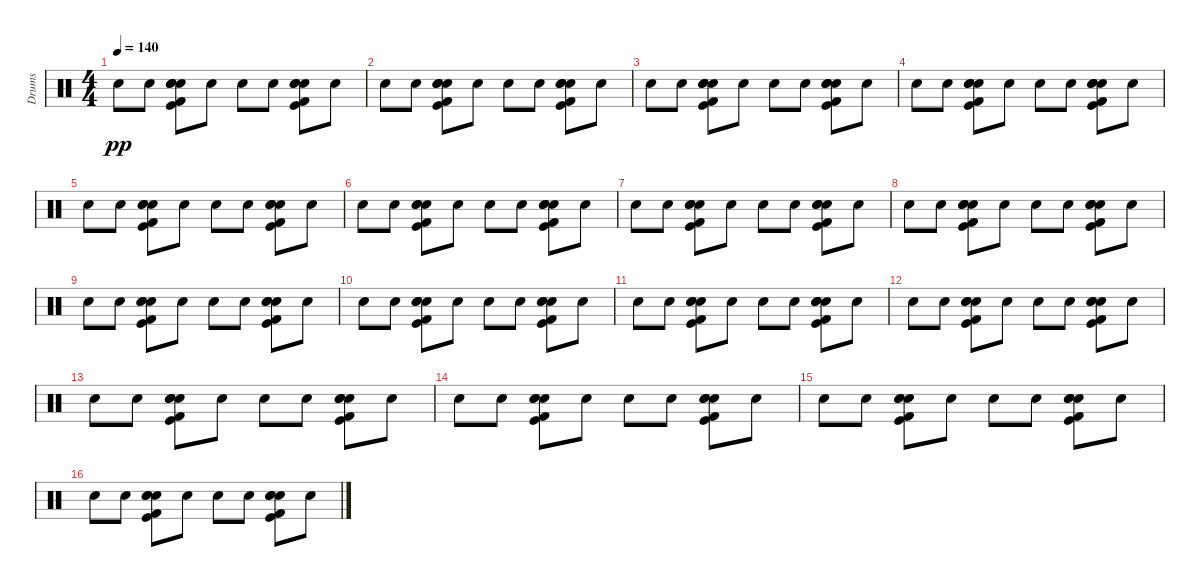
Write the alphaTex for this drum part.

\track ("Drums" "Drums") {instrument percussion}
\staff {score}
\articulation defaults
\ts (4 4)
\tempo 140
\clef neutral
\ks c "Electric Snare (hit)".8{dy pp} "Electric Snare (hit)".8
("Kick (hit) 2" "Kick (hit)" "Snare (hit) 2" "Electric Snare (hit)" "Electric Snare (hit)").8 "Electric Snare (hit)".8 "Electric Snare (hit)".8 "Electric Snare (hit)".8 ("Snare (hit) 2" "Kick (hit) 2" "Electric Snare (hit)" "Electric Snare (hit)" "Kick (hit)").8 "Electric Snare (hit)".8 |
"Electric Snare (hit)".8 "Electric Snare (hit)".8 ("Kick (hit)" "Kick (hit) 2" "Electric Snare (hit)" "Snare (hit) 2" "Electric Snare (hit)").8 "Electric Snare (hit)".8 "Electric Snare (hit)".8 "Electric Snare (hit)".8 ("Snare (hit) 2" "Kick (hit) 2" "Electric Snare (hit)" "Electric Snare (hit)" "Kick (hit)").8 "Electric Snare (hit)".8 |
"Electric Snare (hit)".8 "Electric Snare (hit)".8 ("Kick (hit)" "Electric Snare (hit)" "Kick (hit) 2" "Electric Snare (hit)" "Snare (hit) 2").8 "Electric Snare (hit)".8 "Electric Snare (hit)".8 "Electric Snare (hit)".8 ("Snare (hit) 2" "Kick (hit) 2" "Electric Snare (hit)" "Electric Snare (hit)" "Kick (hit)").8 "Electric Snare (hit)".8 |
"Electric Snare (hit)".8 "Electric Snare (hit)".8 ("Kick (hit) 2" "Snare (hit) 2" "Electric Snare (hit)" "Kick (hit)" "Electric Snare (hit)").8 "Electric Snare (hit)".8 "Electric Snare (hit)".8 "Electric Snare (hit)".8 ("Snare (hit) 2" "Kick (hit) 2" "Electric Snare (hit)" "Electric Snare (hit)" "Kick (hit)").8 "Electric Snare (hit)".8 |
"Electric Snare (hit)".8 "Electric Snare (hit)".8 ("Kick (hit) 2" "Kick (hit)" "Snare (hit) 2" "Electric Snare (hit)" "Electric Snare (hit)").8 "Electric Snare (hit)".8 "Electric Snare (hit)".8 "Electric Snare (hit)".8 ("Snare (hit) 2" "Kick (hit) 2" "Kick (hit)" "Electric Snare (hit)" "Electric Snare (hit)").8 "Electric Snare (hit)".8 |
"Electric Snare (hit)".8 "Electric Snare (hit)".8 ("Kick (hit) 2" "Kick (hit)" "Snare (hit) 2" "Electric Snare (hit)" "Electric Snare (hit)").8 "Electric Snare (hit)".8 "Electric Snare (hit)".8 "Electric Snare (hit)".8 ("Snare (hit) 2" "Kick (hit) 2" "Electric Snare (hit)" "Electric Snare (hit)" "Kick (hit)").8 "Electric Snare (hit)".8 |
"Electric Snare (hit)".8 "Electric Snare (hit)".8 ("Kick (hit)" "Kick (hit) 2" "Electric Snare (hit)" "Snare (hit) 2" "Electric Snare (hit)").8 "Electric Snare (hit)".8 "Electric Snare (hit)".8 "Electric Snare (hit)".8 ("Snare (hit) 2" "Kick (hit) 2" "Electric Snare (hit)" "Electric Snare (hit)" "Kick (hit)").8 "Electric Snare (hit)".8 |
"Electric Snare (hit)".8 "Electric Snare (hit)".8 ("Kick (hit)" "Electric Snare (hit)" "Kick (hit) 2" "Electric Snare (hit)" "Snare (hit) 2").8 "Electric Snare (hit)".8 "Electric Snare (hit)".8 "Electric Snare (hit)".8 ("Snare (hit) 2" "Kick (hit) 2" "Electric Snare (hit)" "Electric Snare (hit)" "Kick (hit)").8 "Electric Snare (hit)".8 |
"Electric Snare (hit)".8 "Electric Snare (hit)".8 ("Kick (hit) 2" "Snare (hit) 2" "Electric Snare (hit)" "Kick (hit)" "Electric Snare (hit)").8 "Electric Snare (hit)".8 "Electric Snare (hit)".8 "Electric Snare (hit)".8 ("Snare (hit) 2" "Kick (hit) 2" "Electric Snare (hit)" "Electric Snare (hit)" "Kick (hit)").8 "Electric Snare (hit)".8 |
"Electric Snare (hit)".8 "Electric Snare (hit)".8 ("Kick (hit) 2" "Kick (hit)" "Snare (hit) 2" "Electric Snare (hit)" "Electric Snare (hit)").8 "Electric Snare (hit)".8 "Electric Snare (hit)".8 "Electric Snare (hit)".8 ("Snare (hit) 2" "Kick (hit) 2" "Kick (hit)" "Electric Snare (hit)" "Electric Snare (hit)").8 "Electric Snare (hit)".8 |
"Electric Snare (hit)".8 "Electric Snare (hit)".8 ("Kick (hit) 2" "Kick (hit)" "Snare (hit) 2" "Electric Snare (hit)" "Electric Snare (hit)").8 "Electric Snare (hit)".8 "Electric Snare (hit)".8 "Electric Snare (hit)".8 ("Snare (hit) 2" "Kick (hit) 2" "Electric Snare (hit)" "Electric Snare (hit)" "Kick (hit)").8 "Electric Snare (hit)".8 |
"Electric Snare (hit)".8 "Electric Snare (hit)".8 ("Kick (hit)" "Kick (hit) 2" "Electric Snare (hit)" "Snare (hit) 2" "Electric Snare (hit)").8 "Electric Snare (hit)".8 "Electric Snare (hit)".8 "Electric Snare (hit)".8 ("Snare (hit) 2" "Kick (hit) 2" "Electric Snare (hit)" "Electric Snare (hit)" "Kick (hit)").8 "Electric Snare (hit)".8 |
"Electric Snare (hit)".8 "Electric Snare (hit)".8 ("Kick (hit)" "Electric Snare (hit)" "Kick (hit) 2" "Electric Snare (hit)" "Snare (hit) 2").8 "Electric Snare (hit)".8 "Electric Snare (hit)".8 "Electric Snare (hit)".8 ("Snare (hit) 2" "Kick (hit) 2" "Electric Snare (hit)" "Electric Snare (hit)" "Kick (hit)").8 "Electric Snare (hit)".8 |
"Electric Snare (hit)".8 "Electric Snare (hit)".8 ("Kick (hit) 2" "Snare (hit) 2" "Electric Snare (hit)" "Kick (hit)" "Electric Snare (hit)").8 "Electric Snare (hit)".8 "Electric Snare (hit)".8 "Electric Snare (hit)".8 ("Snare (hit) 2" "Kick (hit) 2" "Electric Snare (hit)" "Electric Snare (hit)" "Kick (hit)").8 "Electric Snare (hit)".8 |
"Electric Snare (hit)".8 "Electric Snare (hit)".8 ("Kick (hit) 2" "Kick (hit)" "Snare (hit) 2" "Electric Snare (hit)" "Electric Snare (hit)").8 "Electric Snare (hit)".8 "Electric Snare (hit)".8 "Electric Snare (hit)".8 ("Snare (hit) 2" "Kick (hit) 2" "Kick (hit)" "Electric Snare (hit)" "Electric Snare (hit)").8 "Electric Snare (hit)".8 |
"Electric Snare (hit)".8 "Electric Snare (hit)".8 ("Kick (hit) 2" "Kick (hit)" "Snare (hit) 2" "Electric Snare (hit)" "Electric Snare (hit)").8 "Electric Snare (hit)".8 "Electric Snare (hit)".8 "Electric Snare (hit)".8 ("Snare (hit) 2" "Kick (hit) 2" "Electric Snare (hit)" "Electric Snare (hit)" "Kick (hit)").8 "Electric Snare (hit)".8
